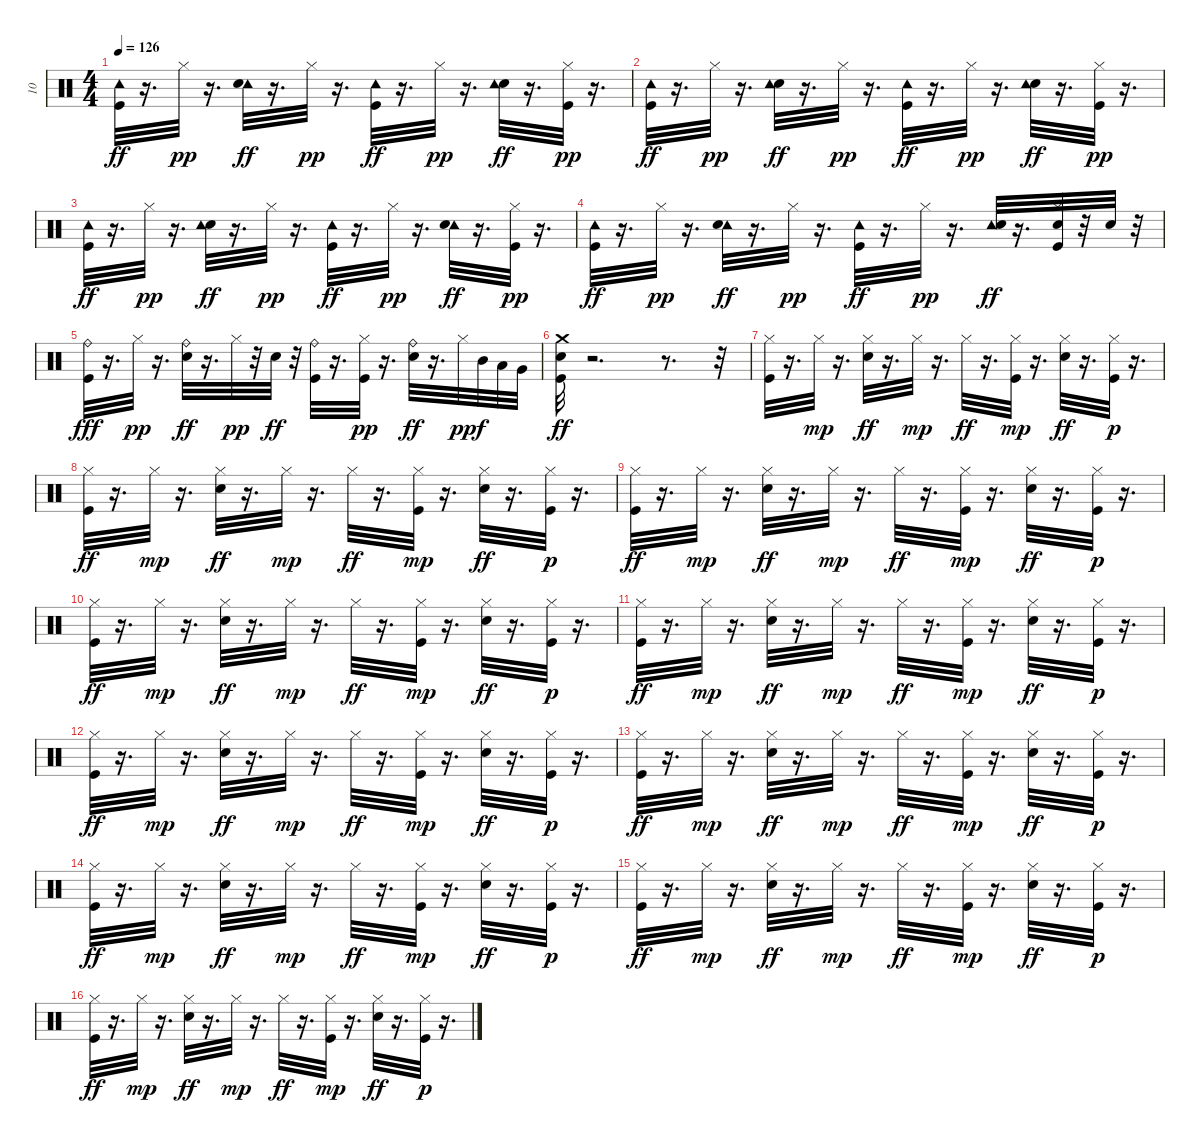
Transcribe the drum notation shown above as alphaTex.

\track ("10" "10") {instrument percussion}
\staff {score}
\articulation defaults
\ts (4 4)
\tempo 126
\clef neutral
\ks c
("Tambourine (hit)" "Kick (hit)").32{dy ff} r.16{d} "Hi-Hat (closed)".32{dy pp} r.16{d} ("Tambourine (hit)" "Electric Snare (hit)").32{dy ff} r.16{d} "Hi-Hat (closed)".32{dy pp} r.16{d} ("Tambourine (hit)" "Kick (hit)").32{dy ff} r.16{d} "Hi-Hat (closed)".32{dy pp} r.16{d} ("Electric Snare (hit)" "Tambourine (hit)").32{dy ff} r.16{d} ("Hi-Hat (closed)" "Kick (hit)").32{dy pp} r.16{d} |
("Tambourine (hit)" "Kick (hit)").32{dy ff} r.16{d} "Hi-Hat (closed)".32{dy pp} r.16{d} ("Electric Snare (hit)" "Tambourine (hit)").32{dy ff} r.16{d} "Hi-Hat (closed)".32{dy pp} r.16{d} ("Tambourine (hit)" "Kick (hit)").32{dy ff} r.16{d} "Hi-Hat (closed)".32{dy pp} r.16{d} ("Electric Snare (hit)" "Tambourine (hit)").32{dy ff} r.16{d} ("Hi-Hat (closed)" "Kick (hit)").32{dy pp} r.16{d} |
("Tambourine (hit)" "Kick (hit)").32{dy ff} r.16{d} "Hi-Hat (closed)".32{dy pp} r.16{d} ("Electric Snare (hit)" "Tambourine (hit)").32{dy ff} r.16{d} "Hi-Hat (closed)".32{dy pp} r.16{d} ("Kick (hit)" "Tambourine (hit)").32{dy ff} r.16{d} "Hi-Hat (closed)".32{dy pp} r.16{d} ("Tambourine (hit)" "Electric Snare (hit)").32{dy ff} r.16{d} ("Kick (hit)" "Hi-Hat (closed)").32{dy pp} r.16{d} |
("Tambourine (hit)" "Kick (hit)").32{dy ff} r.16{d} "Hi-Hat (closed)".32{dy pp} r.16{d} ("Tambourine (hit)" "Electric Snare (hit)").32{dy ff} r.16{d} "Hi-Hat (closed)".32{dy pp} r.16{d} ("Kick (hit)" "Tambourine (hit)").32{dy ff} r.16{d} "Hi-Hat (closed)".32{dy pp} r.16{d} ("Tambourine (hit)" "Electric Snare (hit)").32{dy ff} r.16{d} ("Hi-Hat (closed)" "Electric Snare (hit)" "Kick (hit)").32 r.32 "Electric Snare (hit)".32 r.32 |
("Ride (bell)" "Kick (hit)").32{dy fff} r.16{d} "Hi-Hat (closed)".32{dy pp} r.16{d} ("Electric Snare (hit)" "Ride (bell)").32{dy ff} r.16{d} "Hi-Hat (closed)".32{dy pp} r.32 "Electric Snare (hit)".32{dy ff} r.32 ("Ride (bell)" "Kick (hit)").32 r.16{d} ("Hi-Hat (closed)" "Kick (hit)").32{dy pp} r.16{d} ("Electric Snare (hit)" "Ride (bell)").32{dy ff} r.16{d} "Hi-Hat (closed)".32{dy pp} "Mid Tom (hit)".32{dy f} "Low Tom (hit)".32 "Very Low Tom (hit)".32 |
("Kick (hit)" "Crash medium (hit)" "Electric Snare (hit)").32{dy ff} r.2{d} r.8{d} r.32 |
("Kick (hit)" "Hi-Hat (closed)").32 r.16{d} "Hi-Hat (closed)".32{dy mp} r.16{d} ("Hi-Hat (closed)" "Electric Snare (hit)").32{dy ff} r.16{d} "Hi-Hat (closed)".32{dy mp} r.16{d} "Hi-Hat (closed)".32{dy ff} r.16{d} ("Kick (hit)" "Hi-Hat (closed)").32{dy mp} r.16{d} ("Electric Snare (hit)" "Hi-Hat (closed)").32{dy ff} r.16{d} ("Kick (hit)" "Hi-Hat (closed)").32{dy p} r.16{d} |
("Kick (hit)" "Hi-Hat (closed)").32{dy ff} r.16{d} "Hi-Hat (closed)".32{dy mp} r.16{d} ("Hi-Hat (closed)" "Electric Snare (hit)").32{dy ff} r.16{d} "Hi-Hat (closed)".32{dy mp} r.16{d} "Hi-Hat (closed)".32{dy ff} r.16{d} ("Kick (hit)" "Hi-Hat (closed)").32{dy mp} r.16{d} ("Electric Snare (hit)" "Hi-Hat (closed)").32{dy ff} r.16{d} ("Kick (hit)" "Hi-Hat (closed)").32{dy p} r.16{d} |
("Kick (hit)" "Hi-Hat (closed)").32{dy ff} r.16{d} "Hi-Hat (closed)".32{dy mp} r.16{d} ("Hi-Hat (closed)" "Electric Snare (hit)").32{dy ff} r.16{d} "Hi-Hat (closed)".32{dy mp} r.16{d} "Hi-Hat (closed)".32{dy ff} r.16{d} ("Kick (hit)" "Hi-Hat (closed)").32{dy mp} r.16{d} ("Electric Snare (hit)" "Hi-Hat (closed)").32{dy ff} r.16{d} ("Kick (hit)" "Hi-Hat (closed)").32{dy p} r.16{d} |
("Kick (hit)" "Hi-Hat (closed)").32{dy ff} r.16{d} "Hi-Hat (closed)".32{dy mp} r.16{d} ("Hi-Hat (closed)" "Electric Snare (hit)").32{dy ff} r.16{d} "Hi-Hat (closed)".32{dy mp} r.16{d} "Hi-Hat (closed)".32{dy ff} r.16{d} ("Kick (hit)" "Hi-Hat (closed)").32{dy mp} r.16{d} ("Electric Snare (hit)" "Hi-Hat (closed)").32{dy ff} r.16{d} ("Kick (hit)" "Hi-Hat (closed)").32{dy p} r.16{d} |
("Kick (hit)" "Hi-Hat (closed)").32{dy ff} r.16{d} "Hi-Hat (closed)".32{dy mp} r.16{d} ("Hi-Hat (closed)" "Electric Snare (hit)").32{dy ff} r.16{d} "Hi-Hat (closed)".32{dy mp} r.16{d} "Hi-Hat (closed)".32{dy ff} r.16{d} ("Kick (hit)" "Hi-Hat (closed)").32{dy mp} r.16{d} ("Electric Snare (hit)" "Hi-Hat (closed)").32{dy ff} r.16{d} ("Kick (hit)" "Hi-Hat (closed)").32{dy p} r.16{d} |
("Kick (hit)" "Hi-Hat (closed)").32{dy ff} r.16{d} "Hi-Hat (closed)".32{dy mp} r.16{d} ("Hi-Hat (closed)" "Electric Snare (hit)").32{dy ff} r.16{d} "Hi-Hat (closed)".32{dy mp} r.16{d} "Hi-Hat (closed)".32{dy ff} r.16{d} ("Kick (hit)" "Hi-Hat (closed)").32{dy mp} r.16{d} ("Electric Snare (hit)" "Hi-Hat (closed)").32{dy ff} r.16{d} ("Kick (hit)" "Hi-Hat (closed)").32{dy p} r.16{d} |
("Kick (hit)" "Hi-Hat (closed)").32{dy ff} r.16{d} "Hi-Hat (closed)".32{dy mp} r.16{d} ("Hi-Hat (closed)" "Electric Snare (hit)").32{dy ff} r.16{d} "Hi-Hat (closed)".32{dy mp} r.16{d} "Hi-Hat (closed)".32{dy ff} r.16{d} ("Kick (hit)" "Hi-Hat (closed)").32{dy mp} r.16{d} ("Electric Snare (hit)" "Hi-Hat (closed)").32{dy ff} r.16{d} ("Kick (hit)" "Hi-Hat (closed)").32{dy p} r.16{d} |
("Kick (hit)" "Hi-Hat (closed)").32{dy ff} r.16{d} "Hi-Hat (closed)".32{dy mp} r.16{d} ("Hi-Hat (closed)" "Electric Snare (hit)").32{dy ff} r.16{d} "Hi-Hat (closed)".32{dy mp} r.16{d} "Hi-Hat (closed)".32{dy ff} r.16{d} ("Kick (hit)" "Hi-Hat (closed)").32{dy mp} r.16{d} ("Electric Snare (hit)" "Hi-Hat (closed)").32{dy ff} r.16{d} ("Kick (hit)" "Hi-Hat (closed)").32{dy p} r.16{d} |
("Kick (hit)" "Hi-Hat (closed)").32{dy ff} r.16{d} "Hi-Hat (closed)".32{dy mp} r.16{d} ("Hi-Hat (closed)" "Electric Snare (hit)").32{dy ff} r.16{d} "Hi-Hat (closed)".32{dy mp} r.16{d} "Hi-Hat (closed)".32{dy ff} r.16{d} ("Kick (hit)" "Hi-Hat (closed)").32{dy mp} r.16{d} ("Electric Snare (hit)" "Hi-Hat (closed)").32{dy ff} r.16{d} ("Kick (hit)" "Hi-Hat (closed)").32{dy p} r.16{d} |
("Kick (hit)" "Hi-Hat (closed)").32{dy ff} r.16{d} "Hi-Hat (closed)".32{dy mp} r.16{d} ("Hi-Hat (closed)" "Electric Snare (hit)").32{dy ff} r.16{d} "Hi-Hat (closed)".32{dy mp} r.16{d} "Hi-Hat (closed)".32{dy ff} r.16{d} ("Kick (hit)" "Hi-Hat (closed)").32{dy mp} r.16{d} ("Electric Snare (hit)" "Hi-Hat (closed)").32{dy ff} r.16{d} ("Kick (hit)" "Hi-Hat (closed)").32{dy p} r.16{d}
